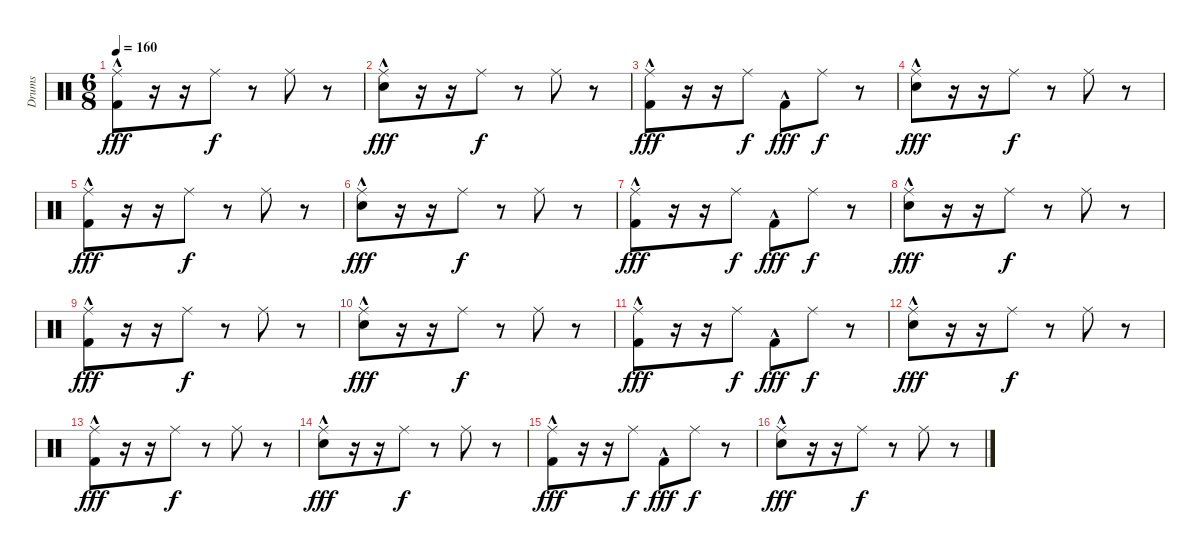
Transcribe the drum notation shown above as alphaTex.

\track ("Drums" "Drums") {instrument percussion}
\staff {score}
\articulation defaults
\ts (6 8)
\tempo 160
\clef neutral
\ks c
("Ride (middle)" "Kick (hit) 2"{hac}).8{dy fff} r.16 r.16 "Ride (middle)".8{dy f} r.8 "Ride (middle)".8 r.8 |
("Ride (middle)" "Snare (hit) 2"{hac}).8{dy fff} r.16 r.16 "Ride (middle)".8{dy f} r.8 "Ride (middle)".8 r.8 |
("Ride (middle)" "Kick (hit) 2"{hac}).8{dy fff} r.16 r.16 "Ride (middle)".8{dy f} "Kick (hit) 2"{hac}.8{dy fff} "Ride (middle)".8{dy f} r.8 |
("Ride (middle)" "Snare (hit) 2"{hac}).8{dy fff} r.16 r.16 "Ride (middle)".8{dy f} r.8 "Ride (middle)".8 r.8 |
("Ride (middle)" "Kick (hit) 2"{hac}).8{dy fff} r.16 r.16 "Ride (middle)".8{dy f} r.8 "Ride (middle)".8 r.8 |
("Ride (middle)" "Snare (hit) 2"{hac}).8{dy fff} r.16 r.16 "Ride (middle)".8{dy f} r.8 "Ride (middle)".8 r.8 |
("Ride (middle)" "Kick (hit) 2"{hac}).8{dy fff} r.16 r.16 "Ride (middle)".8{dy f} "Kick (hit) 2"{hac}.8{dy fff} "Ride (middle)".8{dy f} r.8 |
("Ride (middle)" "Snare (hit) 2"{hac}).8{dy fff} r.16 r.16 "Ride (middle)".8{dy f} r.8 "Ride (middle)".8 r.8 |
("Ride (middle)" "Kick (hit) 2"{hac}).8{dy fff} r.16 r.16 "Ride (middle)".8{dy f} r.8 "Ride (middle)".8 r.8 |
("Ride (middle)" "Snare (hit) 2"{hac}).8{dy fff} r.16 r.16 "Ride (middle)".8{dy f} r.8 "Ride (middle)".8 r.8 |
("Ride (middle)" "Kick (hit) 2"{hac}).8{dy fff} r.16 r.16 "Ride (middle)".8{dy f} "Kick (hit) 2"{hac}.8{dy fff} "Ride (middle)".8{dy f} r.8 |
("Ride (middle)" "Snare (hit) 2"{hac}).8{dy fff} r.16 r.16 "Ride (middle)".8{dy f} r.8 "Ride (middle)".8 r.8 |
("Ride (middle)" "Kick (hit) 2"{hac}).8{dy fff} r.16 r.16 "Ride (middle)".8{dy f} r.8 "Ride (middle)".8 r.8 |
("Ride (middle)" "Snare (hit) 2"{hac}).8{dy fff} r.16 r.16 "Ride (middle)".8{dy f} r.8 "Ride (middle)".8 r.8 |
("Ride (middle)" "Kick (hit) 2"{hac}).8{dy fff} r.16 r.16 "Ride (middle)".8{dy f} "Kick (hit) 2"{hac}.8{dy fff} "Ride (middle)".8{dy f} r.8 |
("Ride (middle)" "Snare (hit) 2"{hac}).8{dy fff} r.16 r.16 "Ride (middle)".8{dy f} r.8 "Ride (middle)".8 r.8
